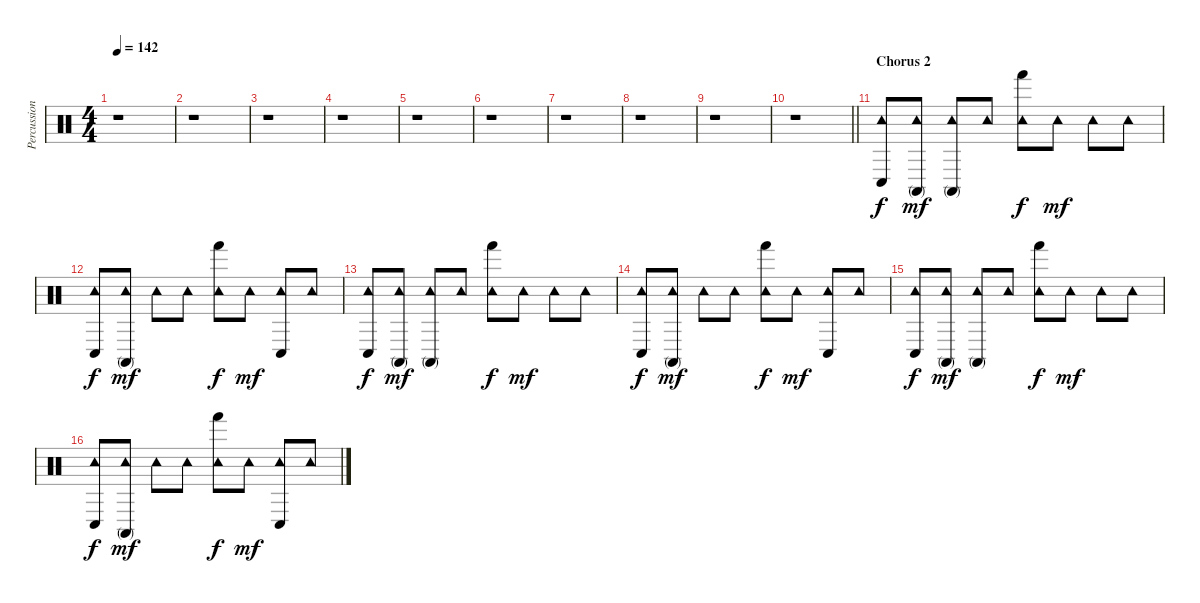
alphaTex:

\track ("Percussion" "Percussion") {instrument percussion}
\staff {score}
\articulation defaults
\ts (4 4)
\tempo 142
\clef neutral
\ks c
r.1{dy mf} |
r.1 |
r.1 |
r.1 |
r.1 |
r.1 |
r.1 |
r.1 |
r.1 |
\barLineRight lightlight
r.1 |
\section ("" "Chorus 2")
("Conga low (hit)" "Tambourine (hit)").8{dy f} ("Conga high (mute)" "Tambourine (hit)").8{dy mf} ("Conga high (mute)" "Tambourine (hit)").8 "Tambourine (hit)".8 ("Hand (hit)" "Tambourine (hit)").8{dy f} "Tambourine (hit)".8{dy mf} "Tambourine (hit)".8 "Tambourine (hit)".8 |
("Conga low (hit)" "Tambourine (hit)").8{dy f} ("Conga high (mute)" "Tambourine (hit)").8{dy mf} "Tambourine (hit)".8 "Tambourine (hit)".8 ("Hand (hit)" "Tambourine (hit)").8{dy f} "Tambourine (hit)".8{dy mf} ("Conga low (hit)" "Tambourine (hit)").8 "Tambourine (hit)".8 |
("Conga low (hit)" "Tambourine (hit)").8{dy f} ("Conga high (mute)" "Tambourine (hit)").8{dy mf} ("Conga high (mute)" "Tambourine (hit)").8 "Tambourine (hit)".8 ("Hand (hit)" "Tambourine (hit)").8{dy f} "Tambourine (hit)".8{dy mf} "Tambourine (hit)".8 "Tambourine (hit)".8 |
("Conga low (hit)" "Tambourine (hit)").8{dy f} ("Conga high (mute)" "Tambourine (hit)").8{dy mf} "Tambourine (hit)".8 "Tambourine (hit)".8 ("Hand (hit)" "Tambourine (hit)").8{dy f} "Tambourine (hit)".8{dy mf} ("Conga low (hit)" "Tambourine (hit)").8 "Tambourine (hit)".8 |
("Conga low (hit)" "Tambourine (hit)").8{dy f} ("Conga high (mute)" "Tambourine (hit)").8{dy mf} ("Conga high (mute)" "Tambourine (hit)").8 "Tambourine (hit)".8 ("Hand (hit)" "Tambourine (hit)").8{dy f} "Tambourine (hit)".8{dy mf} "Tambourine (hit)".8 "Tambourine (hit)".8 |
("Conga low (hit)" "Tambourine (hit)").8{dy f} ("Conga high (mute)" "Tambourine (hit)").8{dy mf} "Tambourine (hit)".8 "Tambourine (hit)".8 ("Hand (hit)" "Tambourine (hit)").8{dy f} "Tambourine (hit)".8{dy mf} ("Conga low (hit)" "Tambourine (hit)").8 "Tambourine (hit)".8
